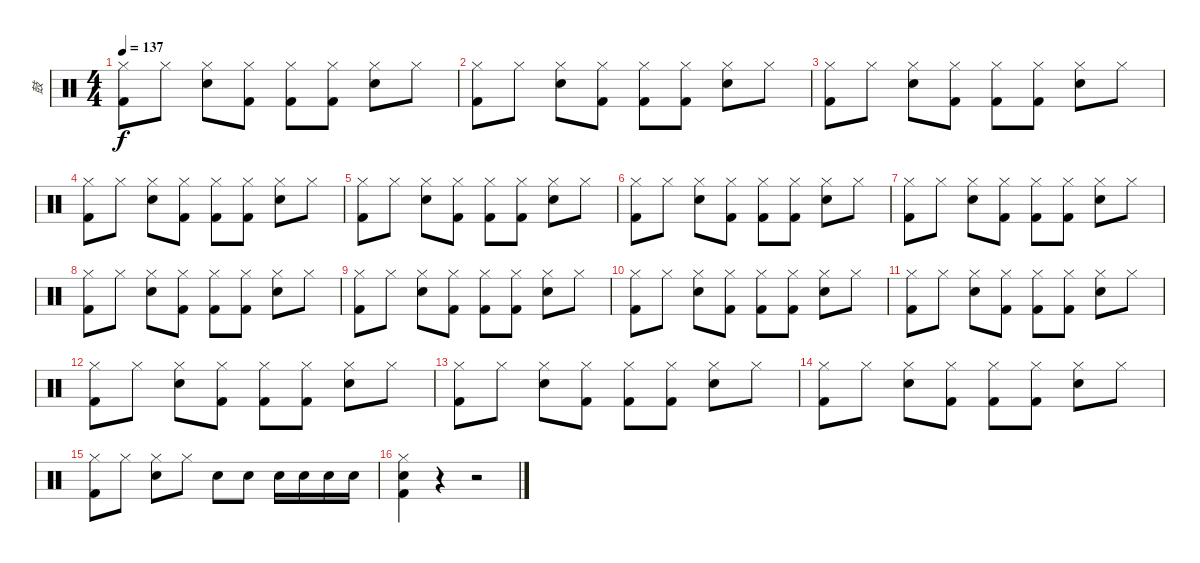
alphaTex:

\track ("鼓" "鼓") {instrument percussion}
\staff {score}
\articulation defaults
\ts (4 4)
\tempo 137
\clef neutral
\ks c
("Hi-Hat (closed)" "Kick (hit) 2").8{dy f} "Hi-Hat (closed)".8 ("Hi-Hat (closed)" "Snare (hit) 2").8 ("Hi-Hat (closed)" "Kick (hit) 2").8 ("Hi-Hat (closed)" "Kick (hit) 2").8 ("Hi-Hat (closed)" "Kick (hit) 2").8 ("Hi-Hat (closed)" "Snare (hit) 2").8 "Hi-Hat (closed)".8 |
("Hi-Hat (closed)" "Kick (hit) 2").8 "Hi-Hat (closed)".8 ("Hi-Hat (closed)" "Snare (hit) 2").8 ("Hi-Hat (closed)" "Kick (hit) 2").8 ("Hi-Hat (closed)" "Kick (hit) 2").8 ("Hi-Hat (closed)" "Kick (hit) 2").8 ("Hi-Hat (closed)" "Snare (hit) 2").8 "Hi-Hat (closed)".8 |
("Hi-Hat (closed)" "Kick (hit) 2").8 "Hi-Hat (closed)".8 ("Hi-Hat (closed)" "Snare (hit) 2").8 ("Hi-Hat (closed)" "Kick (hit) 2").8 ("Hi-Hat (closed)" "Kick (hit) 2").8 ("Hi-Hat (closed)" "Kick (hit) 2").8 ("Hi-Hat (closed)" "Snare (hit) 2").8 "Hi-Hat (closed)".8 |
("Hi-Hat (closed)" "Kick (hit) 2").8 "Hi-Hat (closed)".8 ("Hi-Hat (closed)" "Snare (hit) 2").8 ("Hi-Hat (closed)" "Kick (hit) 2").8 ("Hi-Hat (closed)" "Kick (hit) 2").8 ("Hi-Hat (closed)" "Kick (hit) 2").8 ("Hi-Hat (closed)" "Snare (hit) 2").8 "Hi-Hat (closed)".8 |
("Hi-Hat (closed)" "Kick (hit) 2").8 "Hi-Hat (closed)".8 ("Hi-Hat (closed)" "Snare (hit) 2").8 ("Hi-Hat (closed)" "Kick (hit) 2").8 ("Hi-Hat (closed)" "Kick (hit) 2").8 ("Hi-Hat (closed)" "Kick (hit) 2").8 ("Hi-Hat (closed)" "Snare (hit) 2").8 "Hi-Hat (closed)".8 |
("Hi-Hat (closed)" "Kick (hit) 2").8 "Hi-Hat (closed)".8 ("Hi-Hat (closed)" "Snare (hit) 2").8 ("Hi-Hat (closed)" "Kick (hit) 2").8 ("Hi-Hat (closed)" "Kick (hit) 2").8 ("Hi-Hat (closed)" "Kick (hit) 2").8 ("Hi-Hat (closed)" "Snare (hit) 2").8 "Hi-Hat (closed)".8 |
("Hi-Hat (closed)" "Kick (hit) 2").8 "Hi-Hat (closed)".8 ("Hi-Hat (closed)" "Snare (hit) 2").8 ("Hi-Hat (closed)" "Kick (hit) 2").8 ("Hi-Hat (closed)" "Kick (hit) 2").8 ("Hi-Hat (closed)" "Kick (hit) 2").8 ("Hi-Hat (closed)" "Snare (hit) 2").8 "Hi-Hat (closed)".8 |
("Hi-Hat (closed)" "Kick (hit) 2").8 "Hi-Hat (closed)".8 ("Hi-Hat (closed)" "Snare (hit) 2").8 ("Hi-Hat (closed)" "Kick (hit) 2").8 ("Hi-Hat (closed)" "Kick (hit) 2").8 ("Hi-Hat (closed)" "Kick (hit) 2").8 ("Hi-Hat (closed)" "Snare (hit) 2").8 "Hi-Hat (closed)".8 |
("Hi-Hat (closed)" "Kick (hit) 2").8 "Hi-Hat (closed)".8 ("Hi-Hat (closed)" "Snare (hit) 2").8 ("Hi-Hat (closed)" "Kick (hit) 2").8 ("Hi-Hat (closed)" "Kick (hit) 2").8 ("Hi-Hat (closed)" "Kick (hit) 2").8 ("Hi-Hat (closed)" "Snare (hit) 2").8 "Hi-Hat (closed)".8 |
("Hi-Hat (closed)" "Kick (hit) 2").8 "Hi-Hat (closed)".8 ("Hi-Hat (closed)" "Snare (hit) 2").8 ("Hi-Hat (closed)" "Kick (hit) 2").8 ("Hi-Hat (closed)" "Kick (hit) 2").8 ("Hi-Hat (closed)" "Kick (hit) 2").8 ("Hi-Hat (closed)" "Snare (hit) 2").8 "Hi-Hat (closed)".8 |
("Hi-Hat (closed)" "Kick (hit) 2").8 "Hi-Hat (closed)".8 ("Hi-Hat (closed)" "Snare (hit) 2").8 ("Hi-Hat (closed)" "Kick (hit) 2").8 ("Hi-Hat (closed)" "Kick (hit) 2").8 ("Hi-Hat (closed)" "Kick (hit) 2").8 ("Hi-Hat (closed)" "Snare (hit) 2").8 "Hi-Hat (closed)".8 |
("Hi-Hat (closed)" "Kick (hit) 2").8 "Hi-Hat (closed)".8 ("Hi-Hat (closed)" "Snare (hit) 2").8 ("Hi-Hat (closed)" "Kick (hit) 2").8 ("Hi-Hat (closed)" "Kick (hit) 2").8 ("Hi-Hat (closed)" "Kick (hit) 2").8 ("Hi-Hat (closed)" "Snare (hit) 2").8 "Hi-Hat (closed)".8 |
("Hi-Hat (closed)" "Kick (hit) 2").8 "Hi-Hat (closed)".8 ("Hi-Hat (closed)" "Snare (hit) 2").8 ("Hi-Hat (closed)" "Kick (hit) 2").8 ("Hi-Hat (closed)" "Kick (hit) 2").8 ("Hi-Hat (closed)" "Kick (hit) 2").8 ("Hi-Hat (closed)" "Snare (hit) 2").8 "Hi-Hat (closed)".8 |
("Hi-Hat (closed)" "Kick (hit) 2").8 "Hi-Hat (closed)".8 ("Hi-Hat (closed)" "Snare (hit) 2").8 ("Hi-Hat (closed)" "Kick (hit) 2").8 ("Hi-Hat (closed)" "Kick (hit) 2").8 ("Hi-Hat (closed)" "Kick (hit) 2").8 ("Hi-Hat (closed)" "Snare (hit) 2").8 "Hi-Hat (closed)".8 |
("Hi-Hat (closed)" "Kick (hit) 2").8 "Hi-Hat (closed)".8 ("Hi-Hat (closed)" "Snare (hit) 2").8 "Hi-Hat (closed)".8 "Snare (hit) 2".8 "Snare (hit) 2".8 "Snare (hit) 2".16 "Snare (hit) 2".16 "Snare (hit) 2".16 "Snare (hit) 2".16 |
("Hi-Hat (closed)" "Snare (hit) 2" "Kick (hit) 2").4 r.4 r.2
